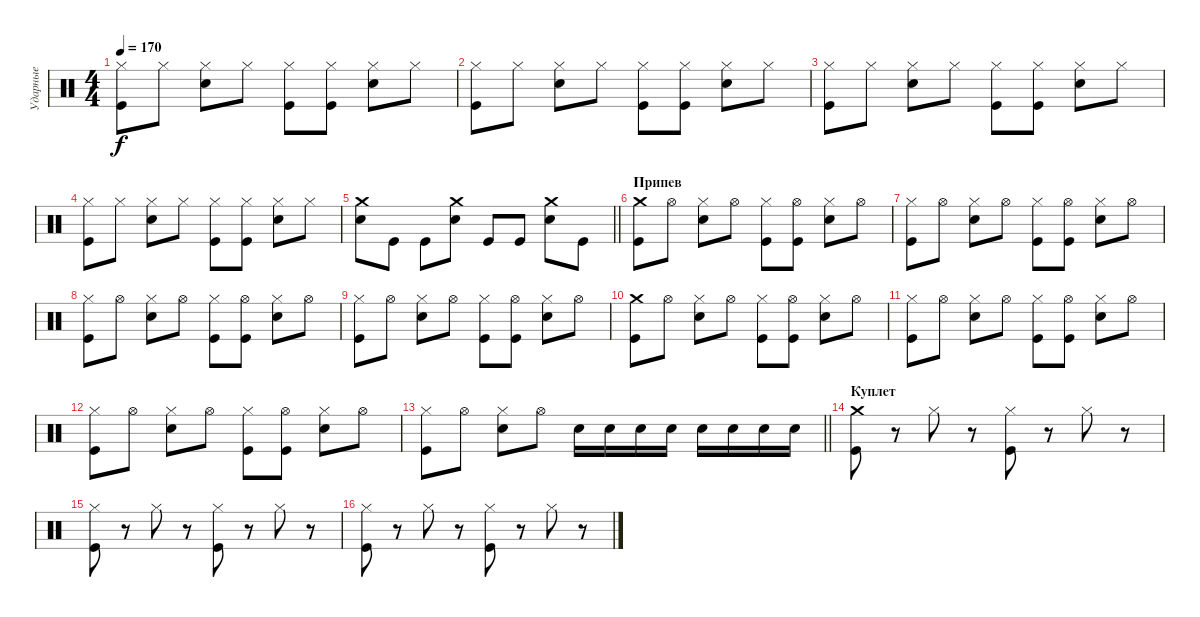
\track ("Ударные" "Ударные") {instrument percussion}
\staff {score}
\articulation defaults
\ts (4 4)
\tempo 170
\clef neutral
\ks c
("Hi-Hat (closed)" "Kick (hit)").8{dy f} "Hi-Hat (closed)".8 ("Hi-Hat (closed)" "Electric Snare (hit)").8 "Hi-Hat (closed)".8 ("Hi-Hat (closed)" "Kick (hit)").8 ("Hi-Hat (closed)" "Kick (hit)").8 ("Hi-Hat (closed)" "Electric Snare (hit)").8 "Hi-Hat (closed)".8 |
("Hi-Hat (closed)" "Kick (hit)").8 "Hi-Hat (closed)".8 ("Hi-Hat (closed)" "Electric Snare (hit)").8 "Hi-Hat (closed)".8 ("Hi-Hat (closed)" "Kick (hit)").8 ("Hi-Hat (closed)" "Kick (hit)").8 ("Hi-Hat (closed)" "Electric Snare (hit)").8 "Hi-Hat (closed)".8 |
("Hi-Hat (closed)" "Kick (hit)").8 "Hi-Hat (closed)".8 ("Hi-Hat (closed)" "Electric Snare (hit)").8 "Hi-Hat (closed)".8 ("Hi-Hat (closed)" "Kick (hit)").8 ("Hi-Hat (closed)" "Kick (hit)").8 ("Hi-Hat (closed)" "Electric Snare (hit)").8 "Hi-Hat (closed)".8 |
("Hi-Hat (closed)" "Kick (hit)").8 "Hi-Hat (closed)".8 ("Hi-Hat (closed)" "Electric Snare (hit)").8 "Hi-Hat (closed)".8 ("Hi-Hat (closed)" "Kick (hit)").8 ("Hi-Hat (closed)" "Kick (hit)").8 ("Hi-Hat (closed)" "Electric Snare (hit)").8 "Hi-Hat (closed)".8 |
\barLineRight lightlight
("Crash medium (hit)" "Electric Snare (hit)").8 "Kick (hit)".8 "Kick (hit)".8 ("Crash medium (hit)" "Electric Snare (hit)").8 "Kick (hit)".8 "Kick (hit)".8 ("Crash medium (hit)" "Electric Snare (hit)").8 "Kick (hit)".8 |
\section ("" "Припев")
("Crash medium (hit)" "Kick (hit)").8 "Hi-Hat (open)".8 ("Hi-Hat (closed)" "Electric Snare (hit)").8 "Hi-Hat (open)".8 ("Hi-Hat (closed)" "Kick (hit)").8 ("Hi-Hat (open)" "Kick (hit)").8 ("Hi-Hat (closed)" "Electric Snare (hit)").8 "Hi-Hat (open)".8 |
("Hi-Hat (closed)" "Kick (hit)").8 "Hi-Hat (open)".8 ("Hi-Hat (closed)" "Electric Snare (hit)").8 "Hi-Hat (open)".8 ("Hi-Hat (closed)" "Kick (hit)").8 ("Hi-Hat (open)" "Kick (hit)").8 ("Hi-Hat (closed)" "Electric Snare (hit)").8 "Hi-Hat (open)".8 |
("Hi-Hat (closed)" "Kick (hit)").8 "Hi-Hat (open)".8 ("Hi-Hat (closed)" "Electric Snare (hit)").8 "Hi-Hat (open)".8 ("Hi-Hat (closed)" "Kick (hit)").8 ("Hi-Hat (open)" "Kick (hit)").8 ("Hi-Hat (closed)" "Electric Snare (hit)").8 "Hi-Hat (open)".8 |
("Hi-Hat (closed)" "Kick (hit)").8 "Hi-Hat (open)".8 ("Hi-Hat (closed)" "Electric Snare (hit)").8 "Hi-Hat (open)".8 ("Hi-Hat (closed)" "Kick (hit)").8 ("Hi-Hat (open)" "Kick (hit)").8 ("Hi-Hat (closed)" "Electric Snare (hit)").8 "Hi-Hat (open)".8 |
("Crash medium (hit)" "Kick (hit)").8 "Hi-Hat (open)".8 ("Hi-Hat (closed)" "Electric Snare (hit)").8 "Hi-Hat (open)".8 ("Hi-Hat (closed)" "Kick (hit)").8 ("Hi-Hat (open)" "Kick (hit)").8 ("Hi-Hat (closed)" "Electric Snare (hit)").8 "Hi-Hat (open)".8 |
("Hi-Hat (closed)" "Kick (hit)").8 "Hi-Hat (open)".8 ("Hi-Hat (closed)" "Electric Snare (hit)").8 "Hi-Hat (open)".8 ("Hi-Hat (closed)" "Kick (hit)").8 ("Hi-Hat (open)" "Kick (hit)").8 ("Hi-Hat (closed)" "Electric Snare (hit)").8 "Hi-Hat (open)".8 |
("Hi-Hat (closed)" "Kick (hit)").8 "Hi-Hat (open)".8 ("Hi-Hat (closed)" "Electric Snare (hit)").8 "Hi-Hat (open)".8 ("Hi-Hat (closed)" "Kick (hit)").8 ("Hi-Hat (open)" "Kick (hit)").8 ("Hi-Hat (closed)" "Electric Snare (hit)").8 "Hi-Hat (open)".8 |
\barLineRight lightlight
("Hi-Hat (closed)" "Kick (hit)").8 "Hi-Hat (open)".8 ("Hi-Hat (closed)" "Electric Snare (hit)").8 "Hi-Hat (open)".8 "Electric Snare (hit)".16 "Electric Snare (hit)".16 "Electric Snare (hit)".16 "Electric Snare (hit)".16 "Electric Snare (hit)".16 "Electric Snare (hit)".16 "Electric Snare (hit)".16 "Electric Snare (hit)".16 |
\section ("" "Куплет")
("Crash medium (hit)" "Kick (hit)").8 r.8 "Hi-Hat (closed)".8 r.8 ("Hi-Hat (closed)" "Kick (hit)").8 r.8 "Hi-Hat (closed)".8 r.8 |
("Hi-Hat (closed)" "Kick (hit)").8 r.8 "Hi-Hat (closed)".8 r.8 ("Hi-Hat (closed)" "Kick (hit)").8 r.8 "Hi-Hat (closed)".8 r.8 |
("Hi-Hat (closed)" "Kick (hit)").8 r.8 "Hi-Hat (closed)".8 r.8 ("Hi-Hat (closed)" "Kick (hit)").8 r.8 "Hi-Hat (closed)".8 r.8
